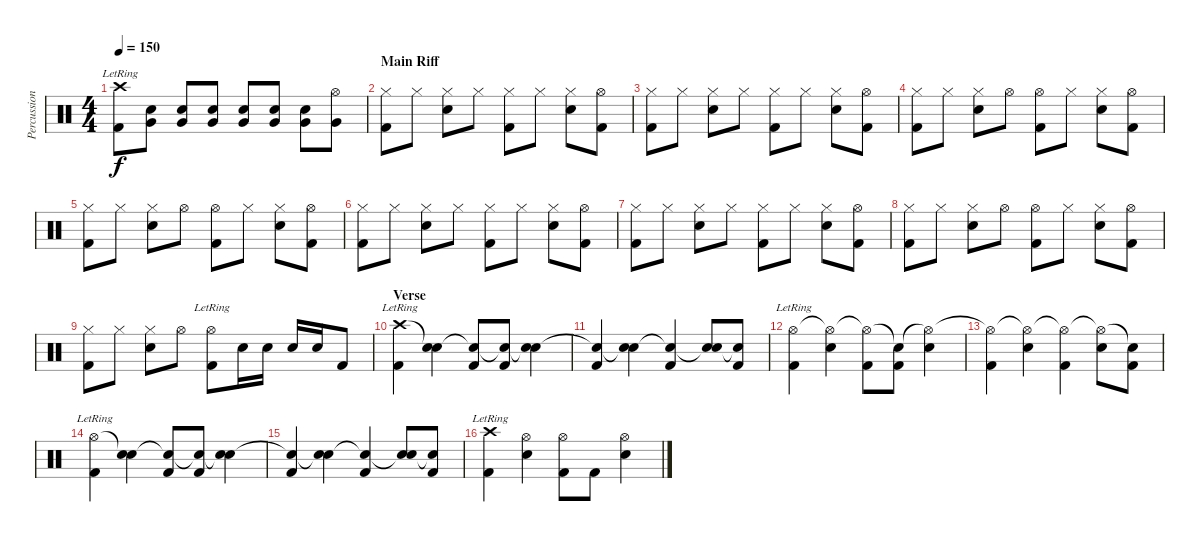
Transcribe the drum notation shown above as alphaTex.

\track ("Percussion" "Percussion") {instrument percussion}
\staff {score}
\articulation defaults
\ts (4 4)
\tempo 150
\clef neutral
\ks c
("Crash high (hit)"{lr} "Kick (hit) 2").8{dy f} ("Very Low Tom (hit)" "Snare (hit) 2").8 ("Very Low Tom (hit)" "Snare (hit) 2").8 ("Very Low Tom (hit)" "Snare (hit) 2").8 ("Very Low Tom (hit)" "Snare (hit) 2").8 ("Very Low Tom (hit)" "Snare (hit) 2").8 ("Very Low Tom (hit)" "Snare (hit) 2").8 ("Hi-Hat (open)" "Very Low Tom (hit)").8 |
\section ("" "Main Riff")
("Hi-Hat (closed)" "Kick (hit) 2").8 "Hi-Hat (closed)".8 ("Hi-Hat (closed)" "Snare (hit) 2").8 "Hi-Hat (closed)".8 ("Hi-Hat (closed)" "Kick (hit) 2").8 "Hi-Hat (closed)".8 ("Hi-Hat (closed)" "Snare (hit) 2").8 ("Hi-Hat (open)" "Kick (hit) 2").8 |
("Hi-Hat (closed)" "Kick (hit) 2").8 "Hi-Hat (closed)".8 ("Hi-Hat (closed)" "Snare (hit) 2").8 "Hi-Hat (closed)".8 ("Hi-Hat (closed)" "Kick (hit) 2").8 "Hi-Hat (closed)".8 ("Hi-Hat (closed)" "Snare (hit) 2").8 ("Hi-Hat (open)" "Kick (hit) 2").8 |
("Hi-Hat (closed)" "Kick (hit) 2").8 "Hi-Hat (closed)".8 ("Hi-Hat (closed)" "Snare (hit) 2").8 "Hi-Hat (open)".8 ("Hi-Hat (open)" "Kick (hit) 2").8 "Hi-Hat (closed)".8 ("Hi-Hat (closed)" "Snare (hit) 2").8 ("Hi-Hat (open)" "Kick (hit) 2").8 |
("Hi-Hat (closed)" "Kick (hit) 2").8 "Hi-Hat (closed)".8 ("Hi-Hat (closed)" "Snare (hit) 2").8 "Hi-Hat (open)".8 ("Hi-Hat (open)" "Kick (hit) 2").8 "Hi-Hat (closed)".8 ("Hi-Hat (closed)" "Snare (hit) 2").8 ("Hi-Hat (open)" "Kick (hit) 2").8 |
("Hi-Hat (closed)" "Kick (hit) 2").8 "Hi-Hat (closed)".8 ("Hi-Hat (closed)" "Snare (hit) 2").8 "Hi-Hat (closed)".8 ("Hi-Hat (closed)" "Kick (hit) 2").8 "Hi-Hat (closed)".8 ("Hi-Hat (closed)" "Snare (hit) 2").8 ("Hi-Hat (open)" "Kick (hit) 2").8 |
("Hi-Hat (closed)" "Kick (hit) 2").8 "Hi-Hat (closed)".8 ("Hi-Hat (closed)" "Snare (hit) 2").8 "Hi-Hat (closed)".8 ("Hi-Hat (closed)" "Kick (hit) 2").8 "Hi-Hat (closed)".8 ("Hi-Hat (closed)" "Snare (hit) 2").8 ("Hi-Hat (open)" "Kick (hit) 2").8 |
("Hi-Hat (closed)" "Kick (hit) 2").8 "Hi-Hat (closed)".8 ("Hi-Hat (closed)" "Snare (hit) 2").8 "Hi-Hat (open)".8 ("Hi-Hat (open)" "Kick (hit) 2").8 "Hi-Hat (closed)".8 ("Hi-Hat (closed)" "Snare (hit) 2").8 ("Hi-Hat (open)" "Kick (hit) 2").8 |
("Hi-Hat (closed)" "Kick (hit) 2").8 "Hi-Hat (closed)".8 ("Hi-Hat (closed)" "Snare (hit) 2").8 "Hi-Hat (open)".8 ("Hi-Hat (open)"{lr} "Kick (hit) 2").8 "Snare (hit) 2".16 "Snare (hit) 2".16 "Snare (hit) 2".16 "Snare (hit) 2".16 "Kick (hit) 2".8 |
\section ("" "Verse")
("Crash high (hit)"{lr} "Kick (hit) 2").4 ("Snare (hit)"{t} "Snare (hit) 2").4 ("Snare (hit)"{t} "Kick (hit) 2").8 ("Snare (hit)"{t} "Kick (hit) 2").8 ("Snare (hit)"{t} "Snare (hit) 2").4 |
("Snare (hit)"{t} "Kick (hit) 2").4 ("Snare (hit)"{t} "Snare (hit) 2").4 ("Snare (hit)"{t} "Kick (hit) 2").4 ("Snare (hit)"{t} "Snare (hit) 2").8 ("Snare (hit)"{t} "Kick (hit) 2").8 |
("Hi-Hat (open)"{lr} "Kick (hit) 2").4 ("Hi-Hat (open)"{t} "Snare (hit) 2").4 ("Hi-Hat (open)"{t} "Kick (hit) 2").8 ("Snare (hit)"{t} "Kick (hit) 2").8 ("Hi-Hat (open)"{t} "Snare (hit) 2").4 |
("Hi-Hat (open)"{t} "Kick (hit) 2").4 ("Hi-Hat (open)"{t} "Snare (hit) 2").4 ("Hi-Hat (open)"{t} "Kick (hit) 2").4 ("Hi-Hat (open)"{t} "Snare (hit) 2").8 ("Snare (hit)"{t} "Kick (hit) 2").8 |
("Hi-Hat (open)"{lr} "Kick (hit) 2").4 ("Snare (hit)"{t} "Snare (hit) 2").4 ("Snare (hit)"{t} "Kick (hit) 2").8 ("Snare (hit)"{t} "Kick (hit) 2").8 ("Snare (hit)"{t} "Snare (hit) 2").4 |
("Snare (hit)"{t} "Kick (hit) 2").4 ("Snare (hit)"{t} "Snare (hit) 2").4 ("Snare (hit)"{t} "Kick (hit) 2").4 ("Snare (hit)"{t} "Snare (hit) 2").8 ("Snare (hit)"{t} "Kick (hit) 2").8 |
("Crash high (hit)"{lr} "Kick (hit) 2").4 ("Hi-Hat (open)" "Snare (hit) 2").4 ("Hi-Hat (open)" "Kick (hit) 2").8 "Kick (hit) 2".8 ("Hi-Hat (open)" "Snare (hit) 2").4
